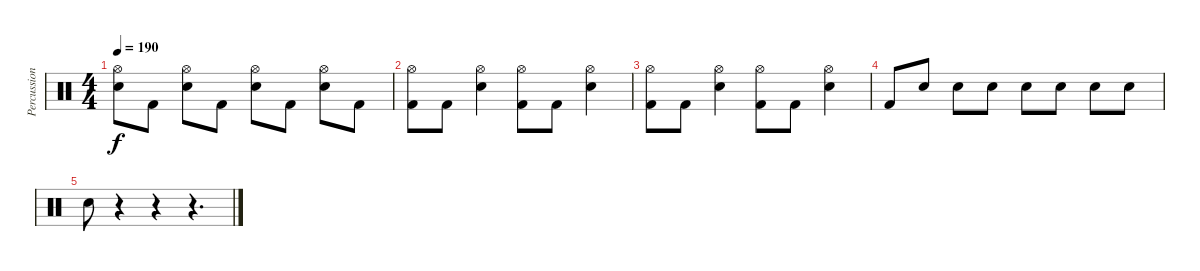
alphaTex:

\track ("Percussion" "Percussion") {instrument percussion}
\staff {score}
\articulation defaults
\ts (4 4)
\tempo 190
\clef neutral
\ks c
("Hi-Hat (open)" "Electric Snare (hit)").8{dy f} "Kick (hit) 2".8 ("Hi-Hat (open)" "Electric Snare (hit)").8 "Kick (hit) 2".8 ("Hi-Hat (open)" "Electric Snare (hit)").8 "Kick (hit) 2".8 ("Hi-Hat (open)" "Electric Snare (hit)").8 "Kick (hit) 2".8 |
("Hi-Hat (open)" "Kick (hit) 2").8 "Kick (hit) 2".8 ("Hi-Hat (open)" "Electric Snare (hit)").4 ("Hi-Hat (open)" "Kick (hit) 2").8 "Kick (hit) 2".8 ("Hi-Hat (open)" "Electric Snare (hit)").4 |
("Hi-Hat (open)" "Kick (hit) 2").8 "Kick (hit) 2".8 ("Hi-Hat (open)" "Electric Snare (hit)").4 ("Hi-Hat (open)" "Kick (hit) 2").8 "Kick (hit) 2".8 ("Hi-Hat (open)" "Electric Snare (hit)").4 |
"Kick (hit) 2".8 "Electric Snare (hit)".8 "Electric Snare (hit)".8 "Electric Snare (hit)".8 "Electric Snare (hit)".8 "Electric Snare (hit)".8 "Electric Snare (hit)".8 "Electric Snare (hit)".8 |
"Electric Snare (hit)".8 r.4 r.4 r.4{d}
